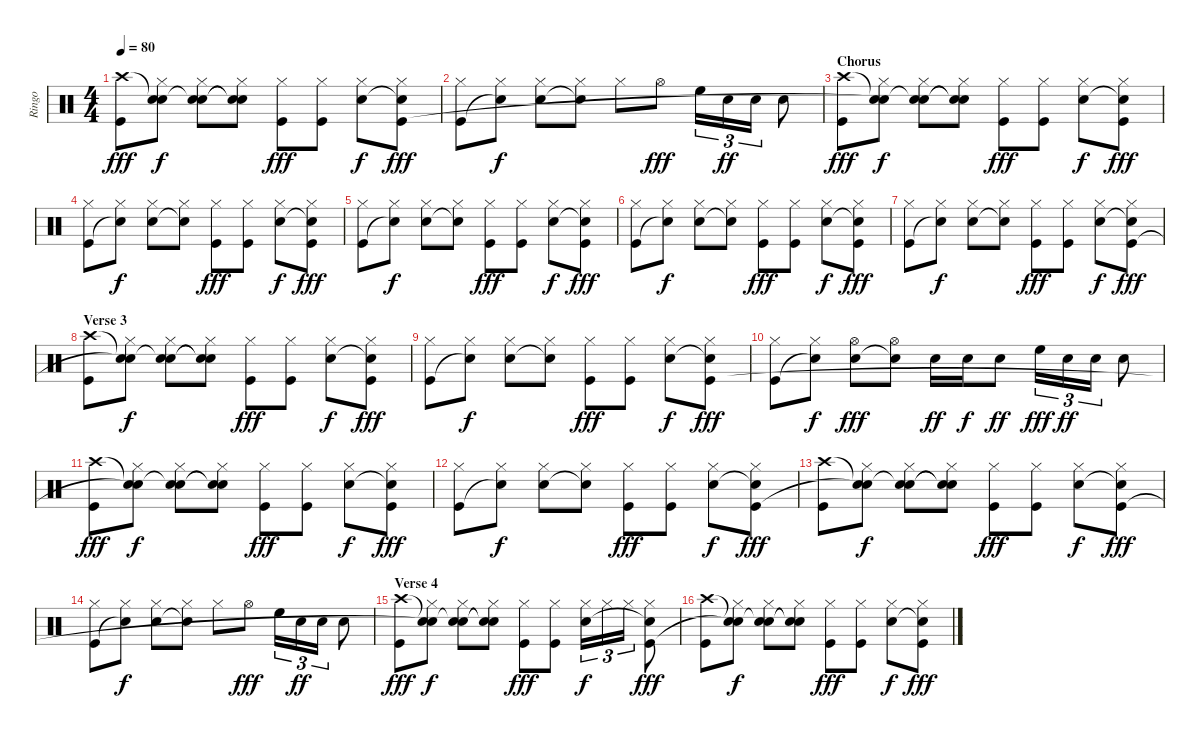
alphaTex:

\track ("Ringo" "Ringo") {instrument percussion}
\staff {score}
\articulation defaults
\ts (4 4)
\tempo 80
\clef neutral
\ks c
("Crash high (hit)" "Kick (hit)").8{dy fff} ("Snare (hit)"{t} "Hi-Hat (closed)" "Snare (hit)"{t}).8{dy f} ("Snare (hit)"{t} "Hi-Hat (closed)" "Electric Snare (hit)").8 ("Snare (hit)"{t} "Hi-Hat (closed)" "Snare (hit)"{t}).8 ("Hi-Hat (closed)" "Kick (hit)").8{dy fff} ("Hi-Hat (closed)" "Kick (hit)").8 ("Hi-Hat (closed)" "Electric Snare (hit)").8{dy f} ("Hi-Hat (closed)" "Snare (hit)"{t} "Kick (hit)").8{dy fff} |
("Hi-Hat (closed)" "Kick (hit)").8 ("Hi-Hat (closed)" "Snare (hit)"{t}).8{dy f} ("Hi-Hat (closed)" "Electric Snare (hit)").8 ("Hi-Hat (closed)" "Snare (hit)"{t}).8 "Hi-Hat (closed)".8 "Hi-Hat (open)".8{dy fff} "High Floor Tom (hit)".16{tu (3 2)} "Electric Snare (hit)".16{tu (3 2) dy ff} "Electric Snare (hit)".16{tu (3 2)} "Electric Snare (hit)".8 |
\section ("" "Chorus")
("Crash high (hit)" "Kick (hit)").8{dy fff} ("Snare (hit)"{t} "Hi-Hat (closed)" "Snare (hit)"{t}).8{dy f} ("Snare (hit)"{t} "Hi-Hat (closed)" "Electric Snare (hit)").8 ("Snare (hit)"{t} "Hi-Hat (closed)" "Snare (hit)"{t}).8 ("Hi-Hat (closed)" "Kick (hit)").8{dy fff} ("Hi-Hat (closed)" "Kick (hit)").8 ("Hi-Hat (closed)" "Electric Snare (hit)").8{dy f} ("Hi-Hat (closed)" "Snare (hit)"{t} "Kick (hit)").8{dy fff} |
("Hi-Hat (closed)" "Kick (hit)").8 ("Hi-Hat (closed)" "Snare (hit)"{t}).8{dy f} ("Hi-Hat (closed)" "Electric Snare (hit)").8 ("Hi-Hat (closed)" "Snare (hit)"{t}).8 ("Hi-Hat (closed)" "Kick (hit)").8{dy fff} ("Hi-Hat (closed)" "Kick (hit)").8 ("Hi-Hat (closed)" "Electric Snare (hit)").8{dy f} ("Hi-Hat (closed)" "Snare (hit)"{t} "Kick (hit)").8{dy fff} |
("Hi-Hat (closed)" "Kick (hit)").8 ("Hi-Hat (closed)" "Snare (hit)"{t}).8{dy f} ("Hi-Hat (closed)" "Electric Snare (hit)").8 ("Hi-Hat (closed)" "Snare (hit)"{t}).8 ("Hi-Hat (closed)" "Kick (hit)").8{dy fff} ("Hi-Hat (closed)" "Kick (hit)").8 ("Hi-Hat (closed)" "Electric Snare (hit)").8{dy f} ("Hi-Hat (closed)" "Snare (hit)"{t} "Kick (hit)").8{dy fff} |
("Hi-Hat (closed)" "Kick (hit)").8 ("Hi-Hat (closed)" "Snare (hit)"{t}).8{dy f} ("Hi-Hat (closed)" "Electric Snare (hit)").8 ("Hi-Hat (closed)" "Snare (hit)"{t}).8 ("Hi-Hat (closed)" "Kick (hit)").8{dy fff} ("Hi-Hat (closed)" "Kick (hit)").8 ("Hi-Hat (closed)" "Electric Snare (hit)").8{dy f} ("Hi-Hat (closed)" "Snare (hit)"{t} "Kick (hit)").8{dy fff} |
("Hi-Hat (closed)" "Kick (hit)").8 ("Hi-Hat (closed)" "Snare (hit)"{t}).8{dy f} ("Hi-Hat (closed)" "Electric Snare (hit)").8 ("Hi-Hat (closed)" "Snare (hit)"{t}).8 ("Hi-Hat (closed)" "Kick (hit)").8{dy fff} ("Hi-Hat (closed)" "Kick (hit)").8 ("Hi-Hat (closed)" "Electric Snare (hit)").8{dy f} ("Hi-Hat (closed)" "Snare (hit)"{t} "Kick (hit)").8{dy fff} |
\section ("" "Verse 3")
("Crash high (hit)" "Kick (hit)").8 ("Snare (hit)"{t} "Hi-Hat (closed)" "Snare (hit)"{t}).8{dy f} ("Snare (hit)"{t} "Hi-Hat (closed)" "Electric Snare (hit)").8 ("Snare (hit)"{t} "Hi-Hat (closed)" "Snare (hit)"{t}).8 ("Hi-Hat (closed)" "Kick (hit)").8{dy fff} ("Hi-Hat (closed)" "Kick (hit)").8 ("Hi-Hat (closed)" "Electric Snare (hit)").8{dy f} ("Hi-Hat (closed)" "Snare (hit)"{t} "Kick (hit)").8{dy fff} |
("Hi-Hat (closed)" "Kick (hit)").8 ("Hi-Hat (closed)" "Snare (hit)"{t}).8{dy f} ("Hi-Hat (closed)" "Electric Snare (hit)").8 ("Hi-Hat (closed)" "Snare (hit)"{t}).8 ("Hi-Hat (closed)" "Kick (hit)").8{dy fff} ("Hi-Hat (closed)" "Kick (hit)").8 ("Hi-Hat (closed)" "Electric Snare (hit)").8{dy f} ("Hi-Hat (closed)" "Snare (hit)"{t} "Kick (hit)").8{dy fff} |
("Hi-Hat (closed)" "Kick (hit)").8 ("Hi-Hat (closed)" "Snare (hit)"{t}).8{dy f} ("Hi-Hat (open)" "Electric Snare (hit)").8{dy fff} ("Hi-Hat (open)" "Snare (hit)"{t}).8 "Electric Snare (hit)".16{dy ff} "Electric Snare (hit)".16{dy f} "Electric Snare (hit)".8{dy ff} "High Floor Tom (hit)".16{tu (3 2) dy fff} "Electric Snare (hit)".16{tu (3 2) dy ff} "Electric Snare (hit)".16{tu (3 2)} "Electric Snare (hit)".8 |
("Crash high (hit)" "Kick (hit)").8{dy fff} ("Snare (hit)"{t} "Hi-Hat (closed)" "Snare (hit)"{t}).8{dy f} ("Snare (hit)"{t} "Hi-Hat (closed)" "Electric Snare (hit)").8 ("Snare (hit)"{t} "Hi-Hat (closed)" "Snare (hit)"{t}).8 ("Hi-Hat (closed)" "Kick (hit)").8{dy fff} ("Hi-Hat (closed)" "Kick (hit)").8 ("Hi-Hat (closed)" "Electric Snare (hit)").8{dy f} ("Hi-Hat (closed)" "Snare (hit)"{t} "Kick (hit)").8{dy fff} |
("Hi-Hat (closed)" "Kick (hit)").8 ("Hi-Hat (closed)" "Snare (hit)"{t}).8{dy f} ("Hi-Hat (closed)" "Electric Snare (hit)").8 ("Hi-Hat (closed)" "Snare (hit)"{t}).8 ("Hi-Hat (closed)" "Kick (hit)").8{dy fff} ("Hi-Hat (closed)" "Kick (hit)").8 ("Hi-Hat (closed)" "Electric Snare (hit)").8{dy f} ("Hi-Hat (closed)" "Snare (hit)"{t} "Kick (hit)").8{dy fff} |
("Crash high (hit)" "Kick (hit)").8 ("Snare (hit)"{t} "Hi-Hat (closed)" "Snare (hit)"{t}).8{dy f} ("Snare (hit)"{t} "Hi-Hat (closed)" "Electric Snare (hit)").8 ("Snare (hit)"{t} "Hi-Hat (closed)" "Snare (hit)"{t}).8 ("Hi-Hat (closed)" "Kick (hit)").8{dy fff} ("Hi-Hat (closed)" "Kick (hit)").8 ("Hi-Hat (closed)" "Electric Snare (hit)").8{dy f} ("Hi-Hat (closed)" "Snare (hit)"{t} "Kick (hit)").8{dy fff} |
("Hi-Hat (closed)" "Kick (hit)").8 ("Hi-Hat (closed)" "Snare (hit)"{t}).8{dy f} ("Hi-Hat (closed)" "Electric Snare (hit)").8 ("Hi-Hat (closed)" "Snare (hit)"{t}).8 "Hi-Hat (closed)".8 "Hi-Hat (open)".8{dy fff} "High Floor Tom (hit)".16{tu (3 2)} "Electric Snare (hit)".16{tu (3 2) dy ff} "Electric Snare (hit)".16{tu (3 2)} "Electric Snare (hit)".8 |
\section ("" "Verse 4")
("Crash high (hit)" "Kick (hit)").8{dy fff} ("Snare (hit)"{t} "Hi-Hat (closed)" "Snare (hit)"{t}).8{dy f} ("Snare (hit)"{t} "Hi-Hat (closed)" "Electric Snare (hit)").8 ("Snare (hit)"{t} "Hi-Hat (closed)" "Snare (hit)"{t}).8 ("Hi-Hat (closed)" "Kick (hit)").8{dy fff} ("Hi-Hat (closed)" "Kick (hit)").8 ("Hi-Hat (closed)" "Electric Snare (hit)").16{tu (3 2) dy f} "Hi-Hat (closed)".16{tu (3 2)} "Hi-Hat (closed)".16{tu (3 2)} ("Hi-Hat (closed)" "Snare (hit)"{t} "Kick (hit)").8{dy fff} |
("Crash high (hit)" "Kick (hit)").8 ("Snare (hit)"{t} "Hi-Hat (closed)" "Snare (hit)"{t}).8{dy f} ("Snare (hit)"{t} "Hi-Hat (closed)" "Electric Snare (hit)").8 ("Snare (hit)"{t} "Hi-Hat (closed)" "Snare (hit)"{t}).8 ("Hi-Hat (closed)" "Kick (hit)").8{dy fff} ("Hi-Hat (closed)" "Kick (hit)").8 ("Hi-Hat (closed)" "Electric Snare (hit)").8{dy f} ("Hi-Hat (closed)" "Snare (hit)"{t} "Kick (hit)").8{dy fff}
